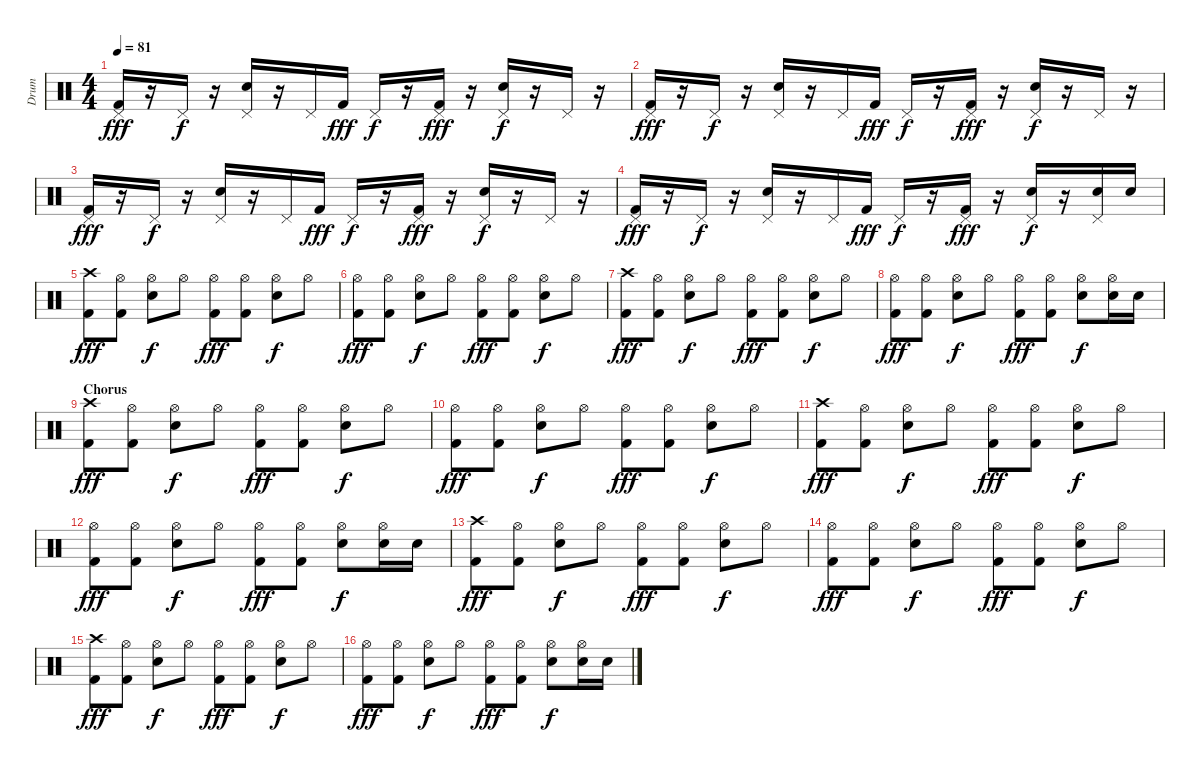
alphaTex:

\track ("Drum" "Drum") {instrument percussion}
\staff {score}
\articulation defaults
\ts (4 4)
\tempo 81
\clef neutral
\ks c
("Pedal Hi-Hat (hit)" "Kick (hit) 2").16{dy fff} r.16 "Pedal Hi-Hat (hit)".16{dy f} r.16 ("Pedal Hi-Hat (hit)" "Electric Snare (hit)").16 r.16 "Pedal Hi-Hat (hit)".16 "Kick (hit) 2".16{dy fff} "Pedal Hi-Hat (hit)".16{dy f} r.16 ("Pedal Hi-Hat (hit)" "Kick (hit) 2").16{dy fff} r.16 ("Pedal Hi-Hat (hit)" "Electric Snare (hit)").16{dy f} r.16 "Pedal Hi-Hat (hit)".16 r.16 |
("Pedal Hi-Hat (hit)" "Kick (hit) 2").16{dy fff} r.16 "Pedal Hi-Hat (hit)".16{dy f} r.16 ("Pedal Hi-Hat (hit)" "Electric Snare (hit)").16 r.16 "Pedal Hi-Hat (hit)".16 "Kick (hit) 2".16{dy fff} "Pedal Hi-Hat (hit)".16{dy f} r.16 ("Pedal Hi-Hat (hit)" "Kick (hit) 2").16{dy fff} r.16 ("Pedal Hi-Hat (hit)" "Electric Snare (hit)").16{dy f} r.16 "Pedal Hi-Hat (hit)".16 r.16 |
("Pedal Hi-Hat (hit)" "Kick (hit) 2").16{dy fff} r.16 "Pedal Hi-Hat (hit)".16{dy f} r.16 ("Pedal Hi-Hat (hit)" "Electric Snare (hit)").16 r.16 "Pedal Hi-Hat (hit)".16 "Kick (hit) 2".16{dy fff} "Pedal Hi-Hat (hit)".16{dy f} r.16 ("Pedal Hi-Hat (hit)" "Kick (hit) 2").16{dy fff} r.16 ("Pedal Hi-Hat (hit)" "Electric Snare (hit)").16{dy f} r.16 "Pedal Hi-Hat (hit)".16 r.16 |
("Pedal Hi-Hat (hit)" "Kick (hit) 2").16{dy fff} r.16 "Pedal Hi-Hat (hit)".16{dy f} r.16 ("Pedal Hi-Hat (hit)" "Electric Snare (hit)").16 r.16 "Pedal Hi-Hat (hit)".16 "Kick (hit) 2".16{dy fff} "Pedal Hi-Hat (hit)".16{dy f} r.16 ("Pedal Hi-Hat (hit)" "Kick (hit) 2").16{dy fff} r.16 ("Pedal Hi-Hat (hit)" "Electric Snare (hit)").16{dy f} r.16 ("Pedal Hi-Hat (hit)" "Electric Snare (hit)").16 "Electric Snare (hit)".16 |
("Crash high (hit)" "Kick (hit) 2").8{dy fff} ("Hi-Hat (open)" "Kick (hit) 2").8 ("Hi-Hat (open)" "Electric Snare (hit)").8{dy f} "Hi-Hat (open)".8 ("Hi-Hat (open)" "Kick (hit) 2").8{dy fff} ("Hi-Hat (open)" "Kick (hit) 2").8 ("Hi-Hat (open)" "Electric Snare (hit)").8{dy f} "Hi-Hat (open)".8 |
("Hi-Hat (open)" "Kick (hit) 2").8{dy fff} ("Hi-Hat (open)" "Kick (hit) 2").8 ("Hi-Hat (open)" "Electric Snare (hit)").8{dy f} "Hi-Hat (open)".8 ("Hi-Hat (open)" "Kick (hit) 2").8{dy fff} ("Hi-Hat (open)" "Kick (hit) 2").8 ("Hi-Hat (open)" "Electric Snare (hit)").8{dy f} "Hi-Hat (open)".8 |
("Crash high (hit)" "Kick (hit) 2").8{dy fff} ("Hi-Hat (open)" "Kick (hit) 2").8 ("Hi-Hat (open)" "Electric Snare (hit)").8{dy f} "Hi-Hat (open)".8 ("Hi-Hat (open)" "Kick (hit) 2").8{dy fff} ("Hi-Hat (open)" "Kick (hit) 2").8 ("Hi-Hat (open)" "Electric Snare (hit)").8{dy f} "Hi-Hat (open)".8 |
("Hi-Hat (open)" "Kick (hit) 2").8{dy fff} ("Hi-Hat (open)" "Kick (hit) 2").8 ("Hi-Hat (open)" "Electric Snare (hit)").8{dy f} "Hi-Hat (open)".8 ("Hi-Hat (open)" "Kick (hit) 2").8{dy fff} ("Hi-Hat (open)" "Kick (hit) 2").8 ("Hi-Hat (open)" "Electric Snare (hit)").8{dy f} ("Hi-Hat (open)" "Electric Snare (hit)").16 "Electric Snare (hit)".16 |
\section ("" "Chorus ")
("Crash high (hit)" "Kick (hit) 2").8{dy fff} ("Hi-Hat (open)" "Kick (hit) 2").8 ("Hi-Hat (open)" "Electric Snare (hit)").8{dy f} "Hi-Hat (open)".8 ("Hi-Hat (open)" "Kick (hit) 2").8{dy fff} ("Hi-Hat (open)" "Kick (hit) 2").8 ("Hi-Hat (open)" "Electric Snare (hit)").8{dy f} "Hi-Hat (open)".8 |
("Hi-Hat (open)" "Kick (hit) 2").8{dy fff} ("Hi-Hat (open)" "Kick (hit) 2").8 ("Hi-Hat (open)" "Electric Snare (hit)").8{dy f} "Hi-Hat (open)".8 ("Hi-Hat (open)" "Kick (hit) 2").8{dy fff} ("Hi-Hat (open)" "Kick (hit) 2").8 ("Hi-Hat (open)" "Electric Snare (hit)").8{dy f} "Hi-Hat (open)".8 |
("Crash high (hit)" "Kick (hit) 2").8{dy fff} ("Hi-Hat (open)" "Kick (hit) 2").8 ("Hi-Hat (open)" "Electric Snare (hit)").8{dy f} "Hi-Hat (open)".8 ("Hi-Hat (open)" "Kick (hit) 2").8{dy fff} ("Hi-Hat (open)" "Kick (hit) 2").8 ("Hi-Hat (open)" "Electric Snare (hit)").8{dy f} "Hi-Hat (open)".8 |
("Hi-Hat (open)" "Kick (hit) 2").8{dy fff} ("Hi-Hat (open)" "Kick (hit) 2").8 ("Hi-Hat (open)" "Electric Snare (hit)").8{dy f} "Hi-Hat (open)".8 ("Hi-Hat (open)" "Kick (hit) 2").8{dy fff} ("Hi-Hat (open)" "Kick (hit) 2").8 ("Hi-Hat (open)" "Electric Snare (hit)").8{dy f} ("Hi-Hat (open)" "Electric Snare (hit)").16 "Electric Snare (hit)".16 |
("Crash high (hit)" "Kick (hit) 2").8{dy fff} ("Hi-Hat (open)" "Kick (hit) 2").8 ("Hi-Hat (open)" "Electric Snare (hit)").8{dy f} "Hi-Hat (open)".8 ("Hi-Hat (open)" "Kick (hit) 2").8{dy fff} ("Hi-Hat (open)" "Kick (hit) 2").8 ("Hi-Hat (open)" "Electric Snare (hit)").8{dy f} "Hi-Hat (open)".8 |
("Hi-Hat (open)" "Kick (hit) 2").8{dy fff} ("Hi-Hat (open)" "Kick (hit) 2").8 ("Hi-Hat (open)" "Electric Snare (hit)").8{dy f} "Hi-Hat (open)".8 ("Hi-Hat (open)" "Kick (hit) 2").8{dy fff} ("Hi-Hat (open)" "Kick (hit) 2").8 ("Hi-Hat (open)" "Electric Snare (hit)").8{dy f} "Hi-Hat (open)".8 |
("Crash high (hit)" "Kick (hit) 2").8{dy fff} ("Hi-Hat (open)" "Kick (hit) 2").8 ("Hi-Hat (open)" "Electric Snare (hit)").8{dy f} "Hi-Hat (open)".8 ("Hi-Hat (open)" "Kick (hit) 2").8{dy fff} ("Hi-Hat (open)" "Kick (hit) 2").8 ("Hi-Hat (open)" "Electric Snare (hit)").8{dy f} "Hi-Hat (open)".8 |
("Hi-Hat (open)" "Kick (hit) 2").8{dy fff} ("Hi-Hat (open)" "Kick (hit) 2").8 ("Hi-Hat (open)" "Electric Snare (hit)").8{dy f} "Hi-Hat (open)".8 ("Hi-Hat (open)" "Kick (hit) 2").8{dy fff} ("Hi-Hat (open)" "Kick (hit) 2").8 ("Hi-Hat (open)" "Electric Snare (hit)").8{dy f} ("Hi-Hat (open)" "Electric Snare (hit)").16 "Electric Snare (hit)".16
